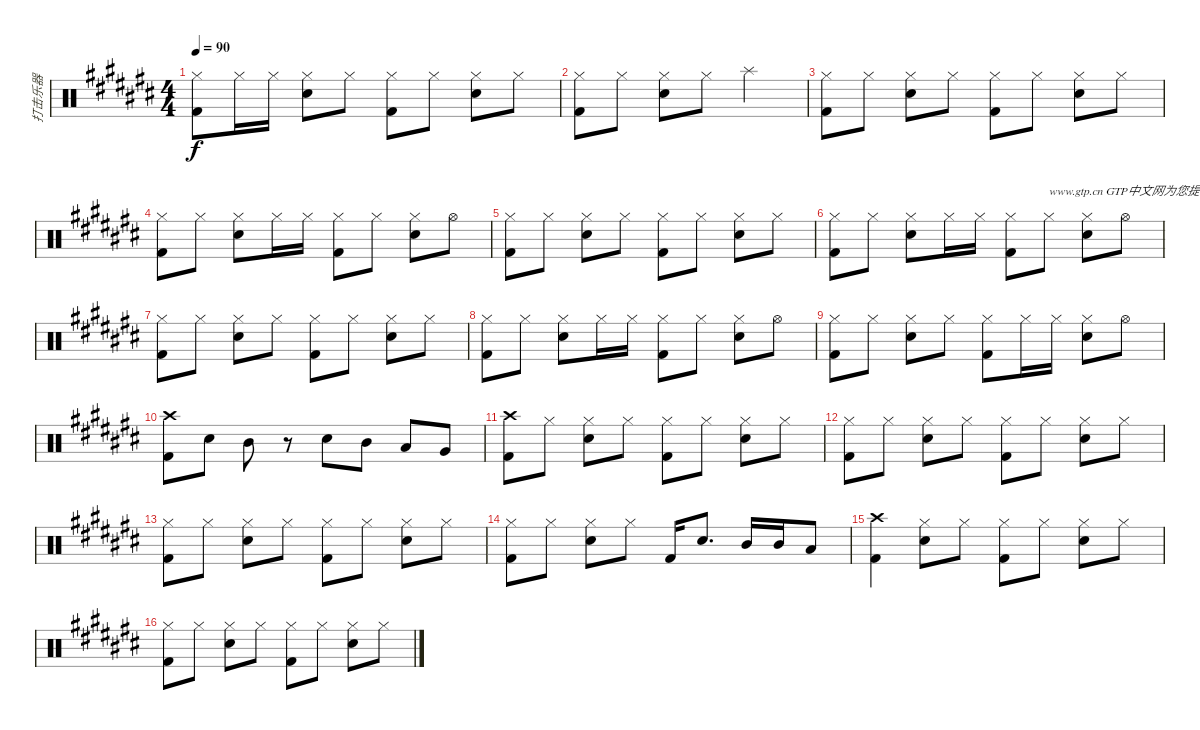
\track ("打击乐器" "打击乐器") {instrument percussion}
\staff {score}
\articulation defaults
\ts (4 4)
\tempo 90
\clef neutral
\ks c#
("Hi-Hat (closed)" "Kick (hit) 2").8{dy f} "Hi-Hat (closed)".16 "Hi-Hat (closed)".16 ("Hi-Hat (closed)" "Snare (hit) 2").8 "Hi-Hat (closed)".8 ("Hi-Hat (closed)" "Kick (hit) 2").8 "Hi-Hat (closed)".8 ("Hi-Hat (closed)" "Snare (hit) 2").8 "Hi-Hat (closed)".8 |
("Hi-Hat (closed)" "Kick (hit) 2").8 "Hi-Hat (closed)".8 ("Hi-Hat (closed)" "Snare (hit) 2").8 "Hi-Hat (closed)".8 "Splash (hit)".2 |
("Hi-Hat (closed)" "Kick (hit) 2").8 "Hi-Hat (closed)".8 ("Hi-Hat (closed)" "Snare (hit) 2").8 "Hi-Hat (closed)".8 ("Hi-Hat (closed)" "Kick (hit) 2").8 "Hi-Hat (closed)".8 ("Hi-Hat (closed)" "Snare (hit) 2").8 "Hi-Hat (closed)".8 |
("Hi-Hat (closed)" "Kick (hit) 2").8 "Hi-Hat (closed)".8 ("Hi-Hat (closed)" "Snare (hit) 2").8 "Hi-Hat (closed)".16 "Hi-Hat (closed)".16 ("Hi-Hat (closed)" "Kick (hit) 2").8 "Hi-Hat (closed)".8 ("Hi-Hat (closed)" "Snare (hit) 2").8 "Hi-Hat (open)".8 |
("Hi-Hat (closed)" "Kick (hit) 2").8 "Hi-Hat (closed)".8 ("Hi-Hat (closed)" "Snare (hit) 2").8 "Hi-Hat (closed)".8 ("Hi-Hat (closed)" "Kick (hit) 2").8 "Hi-Hat (closed)".8 ("Hi-Hat (closed)" "Snare (hit) 2").8 "Hi-Hat (closed)".8 |
("Hi-Hat (closed)" "Kick (hit) 2").8 "Hi-Hat (closed)".8 ("Hi-Hat (closed)" "Snare (hit) 2").8 "Hi-Hat (closed)".16 "Hi-Hat (closed)".16 ("Hi-Hat (closed)" "Kick (hit) 2").8 "Hi-Hat (closed)".8{txt "www.gtp.cn GTP中文网为您提供优秀的谱子"} ("Hi-Hat (closed)" "Snare (hit) 2").8 "Hi-Hat (open)".8 |
("Hi-Hat (closed)" "Kick (hit) 2").8 "Hi-Hat (closed)".8 ("Hi-Hat (closed)" "Snare (hit) 2").8 "Hi-Hat (closed)".8 ("Hi-Hat (closed)" "Kick (hit) 2").8 "Hi-Hat (closed)".8 ("Hi-Hat (closed)" "Snare (hit) 2").8 "Hi-Hat (closed)".8 |
("Hi-Hat (closed)" "Kick (hit) 2").8 "Hi-Hat (closed)".8 ("Hi-Hat (closed)" "Snare (hit) 2").8 "Hi-Hat (closed)".16 "Hi-Hat (closed)".16 ("Hi-Hat (closed)" "Kick (hit) 2").8 "Hi-Hat (closed)".8 ("Hi-Hat (closed)" "Snare (hit) 2").8 "Hi-Hat (open)".8 |
("Hi-Hat (closed)" "Kick (hit) 2").8 "Hi-Hat (closed)".8 ("Hi-Hat (closed)" "Snare (hit) 2").8 "Hi-Hat (closed)".8 ("Hi-Hat (closed)" "Kick (hit) 2").8 "Hi-Hat (closed)".16 "Hi-Hat (closed)".16 ("Hi-Hat (closed)" "Snare (hit) 2").8 "Hi-Hat (open)".8 |
("Crash high (hit)" "Kick (hit) 2").8 "Snare (hit) 2".8 "Mid Tom (hit)".8 r.8 "Snare (hit) 2".8 "Mid Tom (hit)".8 "Low Tom (hit)".8 "Very Low Tom (hit)".8 |
("Crash high (hit)" "Kick (hit) 2").8 "Hi-Hat (closed)".8 ("Hi-Hat (closed)" "Snare (hit) 2").8 "Hi-Hat (closed)".8 ("Hi-Hat (closed)" "Kick (hit) 2").8 "Hi-Hat (closed)".8 ("Hi-Hat (closed)" "Snare (hit) 2").8 "Hi-Hat (closed)".8 |
("Hi-Hat (closed)" "Kick (hit) 2").8 "Hi-Hat (closed)".8 ("Hi-Hat (closed)" "Snare (hit) 2").8 "Hi-Hat (closed)".8 ("Hi-Hat (closed)" "Kick (hit) 2").8 "Hi-Hat (closed)".8 ("Hi-Hat (closed)" "Snare (hit) 2").8 "Hi-Hat (closed)".8 |
("Hi-Hat (closed)" "Kick (hit) 2").8 "Hi-Hat (closed)".8 ("Hi-Hat (closed)" "Snare (hit) 2").8 "Hi-Hat (closed)".8 ("Hi-Hat (closed)" "Kick (hit) 2").8 "Hi-Hat (closed)".8 ("Hi-Hat (closed)" "Snare (hit) 2").8 "Hi-Hat (closed)".8 |
("Hi-Hat (closed)" "Kick (hit) 2").8 "Hi-Hat (closed)".8 ("Hi-Hat (closed)" "Snare (hit) 2").8 "Hi-Hat (closed)".8 "Kick (hit) 2".16 "Snare (hit) 2".8{d} "Mid Tom (hit)".16 "Mid Tom (hit)".16 "Low Tom (hit)".8 |
("Crash high (hit)" "Kick (hit) 2").4 ("Hi-Hat (closed)" "Snare (hit) 2").8 "Hi-Hat (closed)".8 ("Hi-Hat (closed)" "Kick (hit) 2").8 "Hi-Hat (closed)".8 ("Hi-Hat (closed)" "Snare (hit) 2").8 "Hi-Hat (closed)".8 |
("Hi-Hat (closed)" "Kick (hit) 2").8 "Hi-Hat (closed)".8 ("Hi-Hat (closed)" "Snare (hit) 2").8 "Hi-Hat (closed)".8 ("Hi-Hat (closed)" "Kick (hit) 2").8 "Hi-Hat (closed)".8 ("Hi-Hat (closed)" "Snare (hit) 2").8 "Hi-Hat (closed)".8
